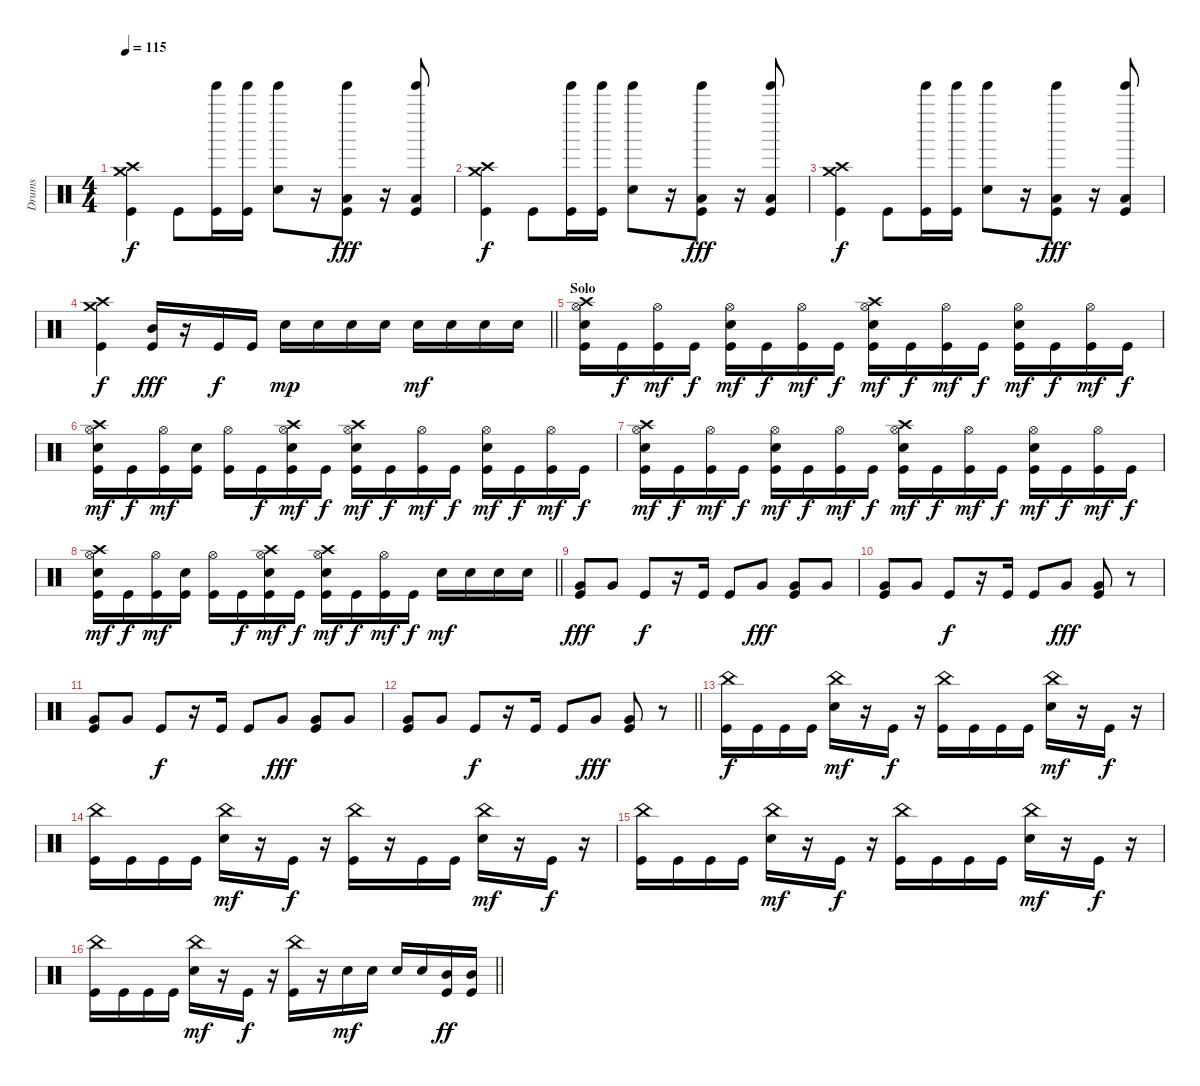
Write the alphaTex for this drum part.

\track ("Drums" "Drums") {instrument percussion}
\staff {score}
\articulation defaults
\ts (4 4)
\tempo 115
\clef neutral
\ks c
("Crash high (hit)" "Crash medium (hit)" "Kick (hit)").4{dy f} "Kick (hit)".8 ("Tinkle Bell (hit)" "Kick (hit)").16 ("Tinkle Bell (hit)" "Kick (hit)").16 ("Tinkle Bell (hit)" "Snare (hit) 2").8 r.16 ("Tinkle Bell (hit)" "Low Tom (hit)" "Kick (hit)").8{dy fff} r.16 ("Tinkle Bell (hit)" "Low Tom (hit)" "Kick (hit)").8 |
("Crash high (hit)" "Crash medium (hit)" "Kick (hit)").4{dy f} "Kick (hit)".8 ("Tinkle Bell (hit)" "Kick (hit)").16 ("Tinkle Bell (hit)" "Kick (hit)").16 ("Tinkle Bell (hit)" "Snare (hit) 2").8 r.16 ("Tinkle Bell (hit)" "Low Tom (hit)" "Kick (hit)").8{dy fff} r.16 ("Tinkle Bell (hit)" "Low Tom (hit)" "Kick (hit)").8 |
("Crash high (hit)" "Crash medium (hit)" "Kick (hit)").4{dy f} "Kick (hit)".8 ("Tinkle Bell (hit)" "Kick (hit)").16 ("Tinkle Bell (hit)" "Kick (hit)").16 ("Tinkle Bell (hit)" "Snare (hit) 2").8 r.16 ("Tinkle Bell (hit)" "Low Tom (hit)" "Kick (hit)").8{dy fff} r.16 ("Tinkle Bell (hit)" "Low Tom (hit)" "Kick (hit)").8 |
\barLineRight lightlight
("Crash high (hit)" "Crash medium (hit)" "Kick (hit)").4{dy f} ("Mid Tom (hit)" "Kick (hit)").16{dy fff} r.16 "Kick (hit)".16{dy f} "Kick (hit)".16 "Snare (hit) 2".16{dy mp} "Snare (hit) 2".16 "Snare (hit) 2".16 "Snare (hit) 2".16 "Snare (hit) 2".16{dy mf} "Snare (hit) 2".16 "Snare (hit) 2".16 "Snare (hit) 2".16 |
\section ("" "Solo")
("Crash high (hit)" "Hi-Hat (open)" "Snare (hit) 2" "Kick (hit)").16 "Kick (hit)".16{dy f} ("Hi-Hat (open)" "Kick (hit)").16{dy mf} "Kick (hit)".16{dy f} ("Hi-Hat (open)" "Snare (hit) 2" "Kick (hit)").16{dy mf} "Kick (hit)".16{dy f} ("Hi-Hat (open)" "Kick (hit)").16{dy mf} "Kick (hit)".16{dy f} ("Crash high (hit)" "Hi-Hat (open)" "Snare (hit) 2" "Kick (hit)").16{dy mf} "Kick (hit)".16{dy f} ("Hi-Hat (open)" "Kick (hit)").16{dy mf} "Kick (hit)".16{dy f} ("Hi-Hat (open)" "Snare (hit) 2" "Kick (hit)").16{dy mf} "Kick (hit)".16{dy f} ("Hi-Hat (open)" "Kick (hit)").16{dy mf} "Kick (hit)".16{dy f} |
("Crash high (hit)" "Hi-Hat (open)" "Snare (hit) 2" "Kick (hit)").16{dy mf} "Kick (hit)".16{dy f} ("Hi-Hat (open)" "Kick (hit)").16{dy mf} ("Snare (hit) 2" "Kick (hit)").16 ("Hi-Hat (open)" "Kick (hit)").16 "Kick (hit)".16{dy f} ("Crash high (hit)" "Hi-Hat (open)" "Snare (hit) 2" "Kick (hit)").16{dy mf} "Kick (hit)".16{dy f} ("Crash high (hit)" "Hi-Hat (open)" "Snare (hit) 2" "Kick (hit)").16{dy mf} "Kick (hit)".16{dy f} ("Hi-Hat (open)" "Kick (hit)").16{dy mf} "Kick (hit)".16{dy f} ("Hi-Hat (open)" "Snare (hit) 2" "Kick (hit)").16{dy mf} "Kick (hit)".16{dy f} ("Hi-Hat (open)" "Kick (hit)").16{dy mf} "Kick (hit)".16{dy f} |
("Crash high (hit)" "Hi-Hat (open)" "Snare (hit) 2" "Kick (hit)").16{dy mf} "Kick (hit)".16{dy f} ("Hi-Hat (open)" "Kick (hit)").16{dy mf} "Kick (hit)".16{dy f} ("Hi-Hat (open)" "Snare (hit) 2" "Kick (hit)").16{dy mf} "Kick (hit)".16{dy f} ("Hi-Hat (open)" "Kick (hit)").16{dy mf} "Kick (hit)".16{dy f} ("Crash high (hit)" "Hi-Hat (open)" "Snare (hit) 2" "Kick (hit)").16{dy mf} "Kick (hit)".16{dy f} ("Hi-Hat (open)" "Kick (hit)").16{dy mf} "Kick (hit)".16{dy f} ("Hi-Hat (open)" "Snare (hit) 2" "Kick (hit)").16{dy mf} "Kick (hit)".16{dy f} ("Hi-Hat (open)" "Kick (hit)").16{dy mf} "Kick (hit)".16{dy f} |
\barLineRight lightlight
("Crash high (hit)" "Hi-Hat (open)" "Snare (hit) 2" "Kick (hit)").16{dy mf} "Kick (hit)".16{dy f} ("Hi-Hat (open)" "Kick (hit)").16{dy mf} ("Snare (hit) 2" "Kick (hit)").16 ("Hi-Hat (open)" "Kick (hit)").16 "Kick (hit)".16{dy f} ("Crash high (hit)" "Hi-Hat (open)" "Snare (hit) 2" "Kick (hit)").16{dy mf} "Kick (hit)".16{dy f} ("Crash high (hit)" "Hi-Hat (open)" "Snare (hit) 2" "Kick (hit)").16{dy mf} "Kick (hit)".16{dy f} ("Hi-Hat (open)" "Kick (hit)").16{dy mf} "Kick (hit)".16{dy f} "Snare (hit) 2".16{dy mf} "Snare (hit) 2".16 "Snare (hit) 2".16 "Snare (hit) 2".16 |
\section ("" "")
("Very Low Tom (hit)" "Kick (hit)").8{dy fff} "Very Low Tom (hit)".8 "Kick (hit)".8{dy f} r.16 "Kick (hit)".16 "Kick (hit)".8 "Very Low Tom (hit)".8{dy fff} ("Very Low Tom (hit)" "Kick (hit)").8 "Very Low Tom (hit)".8 |
("Very Low Tom (hit)" "Kick (hit)").8 "Very Low Tom (hit)".8 "Kick (hit)".8{dy f} r.16 "Kick (hit)".16 "Kick (hit)".8 "Very Low Tom (hit)".8{dy fff} ("Very Low Tom (hit)" "Kick (hit)").8 r.8 |
("Very Low Tom (hit)" "Kick (hit)").8 "Very Low Tom (hit)".8 "Kick (hit)".8{dy f} r.16 "Kick (hit)".16 "Kick (hit)".8 "Very Low Tom (hit)".8{dy fff} ("Very Low Tom (hit)" "Kick (hit)").8 "Very Low Tom (hit)".8 |
\barLineRight lightlight
("Very Low Tom (hit)" "Kick (hit)").8 "Very Low Tom (hit)".8 "Kick (hit)".8{dy f} r.16 "Kick (hit)".16 "Kick (hit)".8 "Very Low Tom (hit)".8{dy fff} ("Very Low Tom (hit)" "Kick (hit)").8 r.8 |
\section ("" "")
("China (hit)" "Kick (hit)").16{dy f} "Kick (hit)".16 "Kick (hit)".16 "Kick (hit)".16 ("China (hit)" "Snare (hit) 2").16{dy mf} r.16 "Kick (hit)".16{dy f} r.16 ("China (hit)" "Kick (hit)").16 "Kick (hit)".16 "Kick (hit)".16 "Kick (hit)".16 ("China (hit)" "Snare (hit) 2").16{dy mf} r.16 "Kick (hit)".16{dy f} r.16 |
("China (hit)" "Kick (hit)").16 "Kick (hit)".16 "Kick (hit)".16 "Kick (hit)".16 ("China (hit)" "Snare (hit) 2").16{dy mf} r.16 "Kick (hit)".16{dy f} r.16 ("China (hit)" "Kick (hit)").16 r.16 "Kick (hit)".16 "Kick (hit)".16 ("China (hit)" "Snare (hit) 2").16{dy mf} r.16 "Kick (hit)".16{dy f} r.16 |
("China (hit)" "Kick (hit)").16 "Kick (hit)".16 "Kick (hit)".16 "Kick (hit)".16 ("China (hit)" "Snare (hit) 2").16{dy mf} r.16 "Kick (hit)".16{dy f} r.16 ("China (hit)" "Kick (hit)").16 "Kick (hit)".16 "Kick (hit)".16 "Kick (hit)".16 ("China (hit)" "Snare (hit) 2").16{dy mf} r.16 "Kick (hit)".16{dy f} r.16 |
\barLineRight lightlight
("China (hit)" "Kick (hit)").16 "Kick (hit)".16 "Kick (hit)".16 "Kick (hit)".16 ("China (hit)" "Snare (hit) 2").16{dy mf} r.16 "Kick (hit)".16{dy f} r.16 ("China (hit)" "Kick (hit)").16 r.16 "Snare (hit) 2".16{dy mf} "Snare (hit) 2".16 "Snare (hit) 2".16 "Snare (hit) 2".16 ("Mid Tom (hit)" "Kick (hit)").16{dy ff} ("Mid Tom (hit)" "Kick (hit)").16
